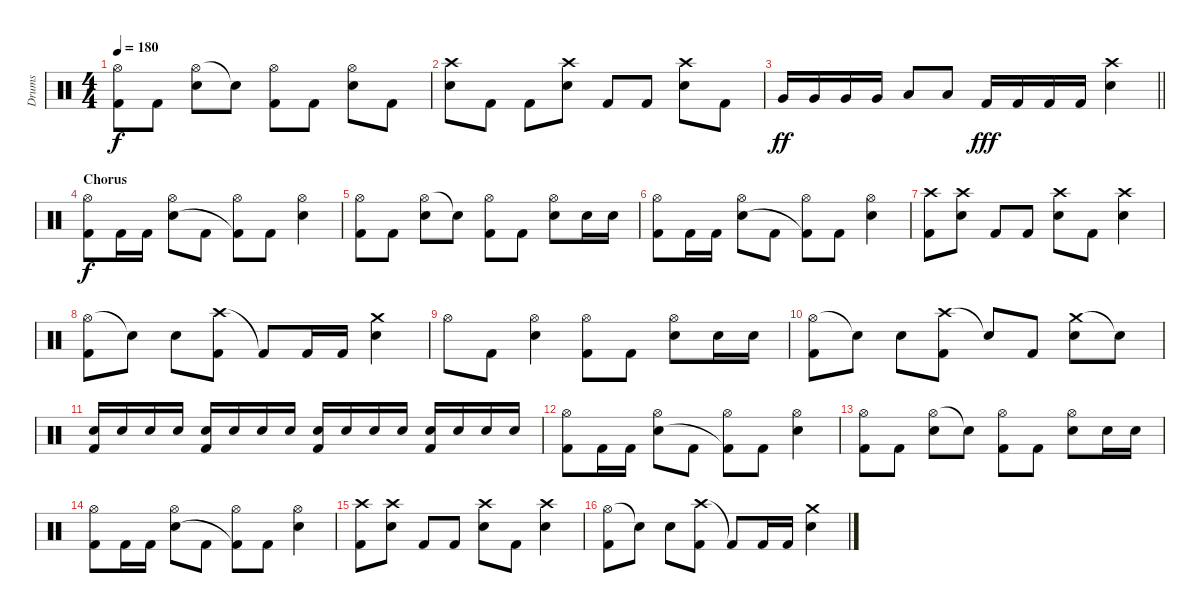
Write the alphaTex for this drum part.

\track ("Drums" "Drums") {instrument percussion}
\staff {score}
\articulation defaults
\ts (4 4)
\tempo 180
\clef neutral
\ks c
("Hi-Hat (open)" "Kick (hit) 2").8{dy f} "Kick (hit) 2".8 ("Hi-Hat (open)" "Electric Snare (hit)").8 "Snare (hit)"{t}.8 ("Hi-Hat (open)" "Kick (hit) 2").8 "Kick (hit) 2".8 ("Hi-Hat (open)" "Electric Snare (hit)").8 "Kick (hit) 2".8 |
("Crash high (hit)" "Electric Snare (hit)").8 "Kick (hit) 2".8 "Kick (hit) 2".8 ("Crash high (hit)" "Electric Snare (hit)").8 "Kick (hit) 2".8 "Kick (hit) 2".8 ("Crash high (hit)" "Electric Snare (hit)").8 "Kick (hit) 2".8 |
\barLineRight lightlight "Very Low Tom (hit)".16{dy ff} "Very Low Tom (hit)".16 "Very Low Tom (hit)".16 "Very Low Tom (hit)".16 "Low Floor Tom (hit)".8 "Low Floor Tom (hit)".8 "Kick (hit) 2".16{dy fff} "Kick (hit) 2".16 "Kick (hit) 2".16 "Kick (hit) 2".16
("Crash high (hit)" "Electric Snare (hit)").4 |
\section ("" "Chorus")
("Hi-Hat (open)" "Kick (hit) 2").8{dy f} "Kick (hit) 2".16 "Kick (hit) 2".16 ("Hi-Hat (open)" "Electric Snare (hit)").8 "Kick (hit) 2".8 ("Hi-Hat (open)" "Kick (hit) 2"{t}).8 "Kick (hit) 2".8 ("Hi-Hat (open)" "Electric Snare (hit)").4 |
("Hi-Hat (open)" "Kick (hit) 2").8 "Kick (hit) 2".8 ("Hi-Hat (open)" "Electric Snare (hit)").8 "Snare (hit)"{t}.8 ("Hi-Hat (open)" "Kick (hit) 2").8 "Kick (hit) 2".8 ("Hi-Hat (open)" "Electric Snare (hit)").8 "Electric Snare (hit)".16 "Electric Snare (hit)".16 |
("Hi-Hat (open)" "Kick (hit) 2").8 "Kick (hit) 2".16 "Kick (hit) 2".16 ("Hi-Hat (open)" "Electric Snare (hit)").8 "Kick (hit) 2".8 ("Hi-Hat (open)" "Kick (hit) 2"{t}).8 "Kick (hit) 2".8 ("Hi-Hat (open)" "Electric Snare (hit)").4 |
("Crash high (hit)" "Kick (hit) 2").8 ("Crash high (hit)" "Electric Snare (hit)").8 "Kick (hit) 2".8 "Kick (hit) 2".8 ("Crash high (hit)" "Electric Snare (hit)").8 "Kick (hit) 2".8 ("Crash high (hit)" "Electric Snare (hit)").4 |
("Hi-Hat (open)" "Kick (hit) 2").8 "Snare (hit)"{t}.8 "Electric Snare (hit)".8 ("Crash high (hit)" "Kick (hit) 2").8 "Kick (hit) 2"{t}.8 "Kick (hit) 2".16 "Kick (hit) 2".16 ("Crash medium (hit)" "Electric Snare (hit)").4 |
"Hi-Hat (open)".8 "Kick (hit) 2".8 ("Hi-Hat (open)" "Electric Snare (hit)").4 ("Hi-Hat (open)" "Kick (hit) 2").8 "Kick (hit) 2".8 ("Hi-Hat (open)" "Electric Snare (hit)").8 "Electric Snare (hit)".16 "Electric Snare (hit)".16 |
("Hi-Hat (open)" "Kick (hit) 2").8 "Snare (hit)"{t}.8 "Electric Snare (hit)".8 ("Crash high (hit)" "Kick (hit) 2").8 "Snare (hit)"{t}.8 "Kick (hit) 2".8 ("Crash medium (hit)" "Electric Snare (hit)").8 "Snare (hit)"{t}.8 |
("Electric Snare (hit)" "Kick (hit) 2").16 "Electric Snare (hit)".16 "Electric Snare (hit)".16 "Electric Snare (hit)".16 ("Electric Snare (hit)" "Kick (hit) 2").16 "Electric Snare (hit)".16 "Electric Snare (hit)".16 "Electric Snare (hit)".16 ("Electric Snare (hit)" "Kick (hit) 2").16 "Electric Snare (hit)".16 "Electric Snare (hit)".16 "Electric Snare (hit)".16 ("Electric Snare (hit)" "Kick (hit) 2").16 "Electric Snare (hit)".16 "Electric Snare (hit)".16 "Electric Snare (hit)".16 |
("Hi-Hat (open)" "Kick (hit) 2").8 "Kick (hit) 2".16 "Kick (hit) 2".16 ("Hi-Hat (open)" "Electric Snare (hit)").8 "Kick (hit) 2".8 ("Hi-Hat (open)" "Kick (hit) 2"{t}).8 "Kick (hit) 2".8 ("Hi-Hat (open)" "Electric Snare (hit)").4 |
("Hi-Hat (open)" "Kick (hit) 2").8 "Kick (hit) 2".8 ("Hi-Hat (open)" "Electric Snare (hit)").8 "Snare (hit)"{t}.8 ("Hi-Hat (open)" "Kick (hit) 2").8 "Kick (hit) 2".8 ("Hi-Hat (open)" "Electric Snare (hit)").8 "Electric Snare (hit)".16 "Electric Snare (hit)".16 |
("Hi-Hat (open)" "Kick (hit) 2").8 "Kick (hit) 2".16 "Kick (hit) 2".16 ("Hi-Hat (open)" "Electric Snare (hit)").8 "Kick (hit) 2".8 ("Hi-Hat (open)" "Kick (hit) 2"{t}).8 "Kick (hit) 2".8 ("Hi-Hat (open)" "Electric Snare (hit)").4 |
("Crash high (hit)" "Kick (hit) 2").8 ("Crash high (hit)" "Electric Snare (hit)").8 "Kick (hit) 2".8 "Kick (hit) 2".8 ("Crash high (hit)" "Electric Snare (hit)").8 "Kick (hit) 2".8 ("Crash high (hit)" "Electric Snare (hit)").4 |
("Hi-Hat (open)" "Kick (hit) 2").8 "Snare (hit)"{t}.8 "Electric Snare (hit)".8 ("Crash high (hit)" "Kick (hit) 2").8 "Kick (hit) 2"{t}.8 "Kick (hit) 2".16 "Kick (hit) 2".16 ("Crash medium (hit)" "Electric Snare (hit)").4
